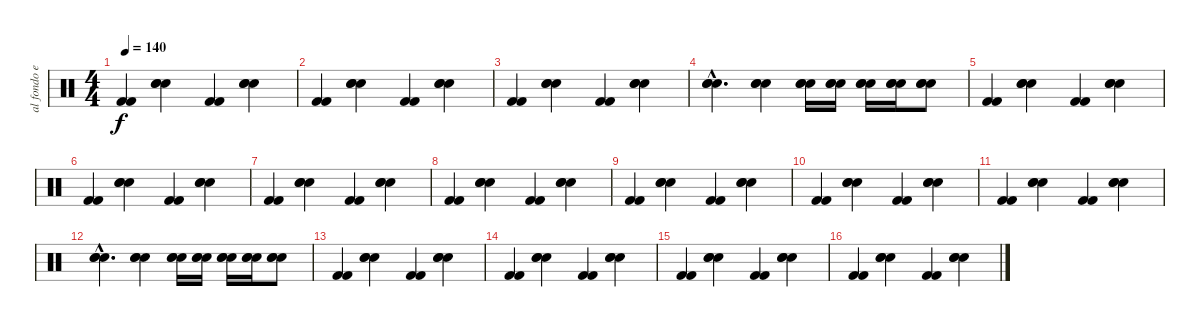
\track ("al fondo en la bateria Mr Pedro Andreu" "al fondo e") {instrument percussion}
\staff {score}
\articulation defaults
\ts (4 4)
\tempo 140
\clef neutral
\ks c
("Kick (hit) 2" "Kick (hit) 2").4{dy f} ("Snare (hit) 2" "Snare (hit) 2" "Snare (hit) 2").4 ("Kick (hit) 2" "Kick (hit) 2").4 ("Snare (hit) 2" "Snare (hit) 2" "Snare (hit) 2").4 |
("Kick (hit) 2" "Kick (hit) 2").4 ("Snare (hit) 2" "Snare (hit) 2" "Snare (hit) 2").4 ("Kick (hit) 2" "Kick (hit) 2").4 ("Snare (hit) 2" "Snare (hit) 2" "Snare (hit) 2").4 |
("Kick (hit) 2" "Kick (hit) 2").4 ("Snare (hit) 2" "Snare (hit) 2" "Snare (hit) 2").4 ("Kick (hit) 2" "Kick (hit) 2").4 ("Snare (hit) 2" "Snare (hit) 2" "Snare (hit) 2").4 |
("Snare (hit) 2"{hac} "Snare (hit) 2"{hac} "Snare (hit) 2"{hac}).4{d} ("Snare (hit) 2" "Snare (hit) 2" "Snare (hit) 2").4 ("Snare (hit) 2" "Snare (hit) 2" "Snare (hit) 2").16 ("Snare (hit) 2" "Snare (hit) 2" "Snare (hit) 2").16 ("Snare (hit) 2" "Snare (hit) 2" "Snare (hit) 2").16 ("Snare (hit) 2" "Snare (hit) 2" "Snare (hit) 2").16 ("Snare (hit) 2" "Snare (hit) 2" "Snare (hit) 2").8 |
("Kick (hit) 2" "Kick (hit) 2").4 ("Snare (hit) 2" "Snare (hit) 2" "Snare (hit) 2").4 ("Kick (hit) 2" "Kick (hit) 2").4 ("Snare (hit) 2" "Snare (hit) 2" "Snare (hit) 2").4 |
("Kick (hit) 2" "Kick (hit) 2").4 ("Snare (hit) 2" "Snare (hit) 2" "Snare (hit) 2").4 ("Kick (hit) 2" "Kick (hit) 2").4 ("Snare (hit) 2" "Snare (hit) 2" "Snare (hit) 2").4 |
("Kick (hit) 2" "Kick (hit) 2").4 ("Snare (hit) 2" "Snare (hit) 2" "Snare (hit) 2").4 ("Kick (hit) 2" "Kick (hit) 2").4 ("Snare (hit) 2" "Snare (hit) 2" "Snare (hit) 2").4 |
("Kick (hit) 2" "Kick (hit) 2").4 ("Snare (hit) 2" "Snare (hit) 2" "Snare (hit) 2").4 ("Kick (hit) 2" "Kick (hit) 2").4 ("Snare (hit) 2" "Snare (hit) 2" "Snare (hit) 2").4 |
("Kick (hit) 2" "Kick (hit) 2").4 ("Snare (hit) 2" "Snare (hit) 2" "Snare (hit) 2").4 ("Kick (hit) 2" "Kick (hit) 2").4 ("Snare (hit) 2" "Snare (hit) 2" "Snare (hit) 2").4 |
("Kick (hit) 2" "Kick (hit) 2").4 ("Snare (hit) 2" "Snare (hit) 2" "Snare (hit) 2").4 ("Kick (hit) 2" "Kick (hit) 2").4 ("Snare (hit) 2" "Snare (hit) 2" "Snare (hit) 2").4 |
("Kick (hit) 2" "Kick (hit) 2").4 ("Snare (hit) 2" "Snare (hit) 2" "Snare (hit) 2").4 ("Kick (hit) 2" "Kick (hit) 2").4 ("Snare (hit) 2" "Snare (hit) 2" "Snare (hit) 2").4 |
("Snare (hit) 2"{hac} "Snare (hit) 2"{hac} "Snare (hit) 2"{hac}).4{d} ("Snare (hit) 2" "Snare (hit) 2" "Snare (hit) 2").4 ("Snare (hit) 2" "Snare (hit) 2" "Snare (hit) 2").16 ("Snare (hit) 2" "Snare (hit) 2" "Snare (hit) 2").16 ("Snare (hit) 2" "Snare (hit) 2" "Snare (hit) 2").16 ("Snare (hit) 2" "Snare (hit) 2" "Snare (hit) 2").16 ("Snare (hit) 2" "Snare (hit) 2" "Snare (hit) 2").8 |
("Kick (hit) 2" "Kick (hit) 2").4 ("Snare (hit) 2" "Snare (hit) 2" "Snare (hit) 2").4 ("Kick (hit) 2" "Kick (hit) 2").4 ("Snare (hit) 2" "Snare (hit) 2" "Snare (hit) 2").4 |
("Kick (hit) 2" "Kick (hit) 2").4 ("Snare (hit) 2" "Snare (hit) 2" "Snare (hit) 2").4 ("Kick (hit) 2" "Kick (hit) 2").4 ("Snare (hit) 2" "Snare (hit) 2" "Snare (hit) 2").4 |
("Kick (hit) 2" "Kick (hit) 2").4 ("Snare (hit) 2" "Snare (hit) 2" "Snare (hit) 2").4 ("Kick (hit) 2" "Kick (hit) 2").4 ("Snare (hit) 2" "Snare (hit) 2" "Snare (hit) 2").4 |
("Kick (hit) 2" "Kick (hit) 2").4 ("Snare (hit) 2" "Snare (hit) 2" "Snare (hit) 2").4 ("Kick (hit) 2" "Kick (hit) 2").4 ("Snare (hit) 2" "Snare (hit) 2" "Snare (hit) 2").4
